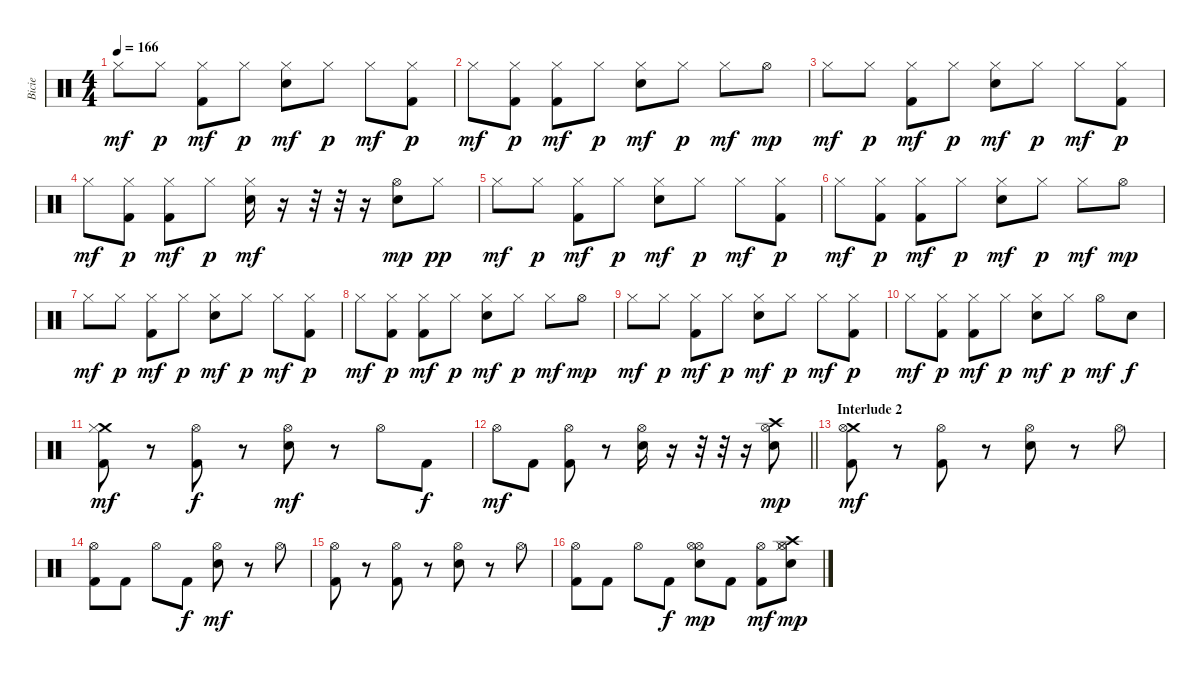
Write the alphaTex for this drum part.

\track ("Bicie" "Bicie") {instrument percussion}
\staff {score}
\articulation defaults
\ts (4 4)
\tempo 166
\clef neutral
\ks c "Hi-Hat (closed)".8{dy mf} "Hi-Hat (closed)".8{dy p}
("Kick (hit) 2" "Hi-Hat (closed)").8{dy mf} "Hi-Hat (closed)".8{dy p} ("Electric Snare (hit)" "Hi-Hat (closed)").8{dy mf} "Hi-Hat (closed)".8{dy p} "Hi-Hat (closed)".8{dy mf} ("Kick (hit) 2" "Hi-Hat (closed)").8{dy p} |
"Hi-Hat (closed)".8{dy mf} ("Kick (hit) 2" "Hi-Hat (closed)").8{dy p} ("Kick (hit) 2" "Hi-Hat (closed)").8{dy mf} "Hi-Hat (closed)".8{dy p} ("Electric Snare (hit)" "Hi-Hat (closed)").8{dy mf} "Hi-Hat (closed)".8{dy p} "Hi-Hat (closed)".8{dy mf} "Hi-Hat (open)".8{dy mp} |
"Hi-Hat (closed)".8{dy mf} "Hi-Hat (closed)".8{dy p} ("Kick (hit) 2" "Hi-Hat (closed)").8{dy mf} "Hi-Hat (closed)".8{dy p} ("Electric Snare (hit)" "Hi-Hat (closed)").8{dy mf} "Hi-Hat (closed)".8{dy p} "Hi-Hat (closed)".8{dy mf} ("Kick (hit) 2" "Hi-Hat (closed)").8{dy p} |
"Hi-Hat (closed)".8{dy mf} ("Kick (hit) 2" "Hi-Hat (closed)").8{dy p} ("Kick (hit) 2" "Hi-Hat (closed)").8{dy mf} "Hi-Hat (closed)".8{dy p} ("Electric Snare (hit)" "Hi-Hat (closed)").16{dy mf} r.16 r.32 r.32 r.16 ("Electric Snare (hit)" "Hi-Hat (open)").8{dy mp} "Hi-Hat (closed)".8{dy pp} |
"Hi-Hat (closed)".8{dy mf} "Hi-Hat (closed)".8{dy p} ("Kick (hit) 2" "Hi-Hat (closed)").8{dy mf} "Hi-Hat (closed)".8{dy p} ("Electric Snare (hit)" "Hi-Hat (closed)").8{dy mf} "Hi-Hat (closed)".8{dy p} "Hi-Hat (closed)".8{dy mf} ("Kick (hit) 2" "Hi-Hat (closed)").8{dy p} |
"Hi-Hat (closed)".8{dy mf} ("Kick (hit) 2" "Hi-Hat (closed)").8{dy p} ("Kick (hit) 2" "Hi-Hat (closed)").8{dy mf} "Hi-Hat (closed)".8{dy p} ("Electric Snare (hit)" "Hi-Hat (closed)").8{dy mf} "Hi-Hat (closed)".8{dy p} "Hi-Hat (closed)".8{dy mf} "Hi-Hat (open)".8{dy mp} |
"Hi-Hat (closed)".8{dy mf} "Hi-Hat (closed)".8{dy p} ("Kick (hit) 2" "Hi-Hat (closed)").8{dy mf} "Hi-Hat (closed)".8{dy p} ("Electric Snare (hit)" "Hi-Hat (closed)").8{dy mf} "Hi-Hat (closed)".8{dy p} "Hi-Hat (closed)".8{dy mf} ("Kick (hit) 2" "Hi-Hat (closed)").8{dy p} |
"Hi-Hat (closed)".8{dy mf} ("Kick (hit) 2" "Hi-Hat (closed)").8{dy p} ("Kick (hit) 2" "Hi-Hat (closed)").8{dy mf} "Hi-Hat (closed)".8{dy p} ("Electric Snare (hit)" "Hi-Hat (closed)").8{dy mf} "Hi-Hat (closed)".8{dy p} "Hi-Hat (closed)".8{dy mf} "Hi-Hat (open)".8{dy mp} |
"Hi-Hat (closed)".8{dy mf} "Hi-Hat (closed)".8{dy p} ("Kick (hit) 2" "Hi-Hat (closed)").8{dy mf} "Hi-Hat (closed)".8{dy p} ("Electric Snare (hit)" "Hi-Hat (closed)").8{dy mf} "Hi-Hat (closed)".8{dy p} "Hi-Hat (closed)".8{dy mf} ("Kick (hit) 2" "Hi-Hat (closed)").8{dy p} |
"Hi-Hat (closed)".8{dy mf} ("Kick (hit) 2" "Hi-Hat (closed)").8{dy p} ("Kick (hit) 2" "Hi-Hat (closed)").8{dy mf} "Hi-Hat (closed)".8{dy p} ("Electric Snare (hit)" "Hi-Hat (closed)").8{dy mf} "Hi-Hat (closed)".8{dy p} "Hi-Hat (open)".8{dy mf} "Electric Snare (hit)".8{dy f} |
("Crash medium (hit)" "Kick (hit) 2" "Hi-Hat (closed)").8{dy mf} r.8 ("Kick (hit) 2" "Hi-Hat (open)").8{dy f} r.8 ("Electric Snare (hit)" "Hi-Hat (open)").8{dy mf} r.8 "Hi-Hat (open)".8 "Kick (hit) 2".8{dy f} |
\barLineRight lightlight "Hi-Hat (open)".8{dy mf} "Kick (hit) 2".8
("Kick (hit) 2" "Hi-Hat (open)").8 r.8 ("Electric Snare (hit)" "Hi-Hat (open)").16 r.16 r.32 r.32 r.16 ("Electric Snare (hit)" "Hi-Hat (open)" "Crash high (hit)").8{dy mp} |
\section ("" "Interlude 2")
("Crash medium (hit)" "Kick (hit) 2" "Hi-Hat (open)").8{dy mf} r.8 ("Kick (hit) 2" "Hi-Hat (open)").8 r.8 ("Electric Snare (hit)" "Hi-Hat (open)").8 r.8 "Hi-Hat (open)".8 |
("Kick (hit) 2" "Hi-Hat (open)").8 "Kick (hit) 2".8 "Hi-Hat (open)".8 "Kick (hit) 2".8{dy f} ("Electric Snare (hit)" "Hi-Hat (open)").8{dy mf} r.8 "Hi-Hat (open)".8 |
("Kick (hit) 2" "Hi-Hat (open)").8 r.8 ("Kick (hit) 2" "Hi-Hat (open)").8 r.8 ("Electric Snare (hit)" "Hi-Hat (open)").8 r.8 "Hi-Hat (open)".8 |
("Kick (hit) 2" "Hi-Hat (open)").8 "Kick (hit) 2".8 "Hi-Hat (open)".8 "Kick (hit) 2".8{dy f} ("Hi-Hat (open)" "Electric Snare (hit)" "Hi-Hat (open)").8{dy mp} "Kick (hit) 2".8 ("Kick (hit) 2" "Hi-Hat (open)").8{dy mf} ("Hi-Hat (closed)" "Electric Snare (hit)" "Hi-Hat (open)" "Crash high (hit)").8{dy mp}
